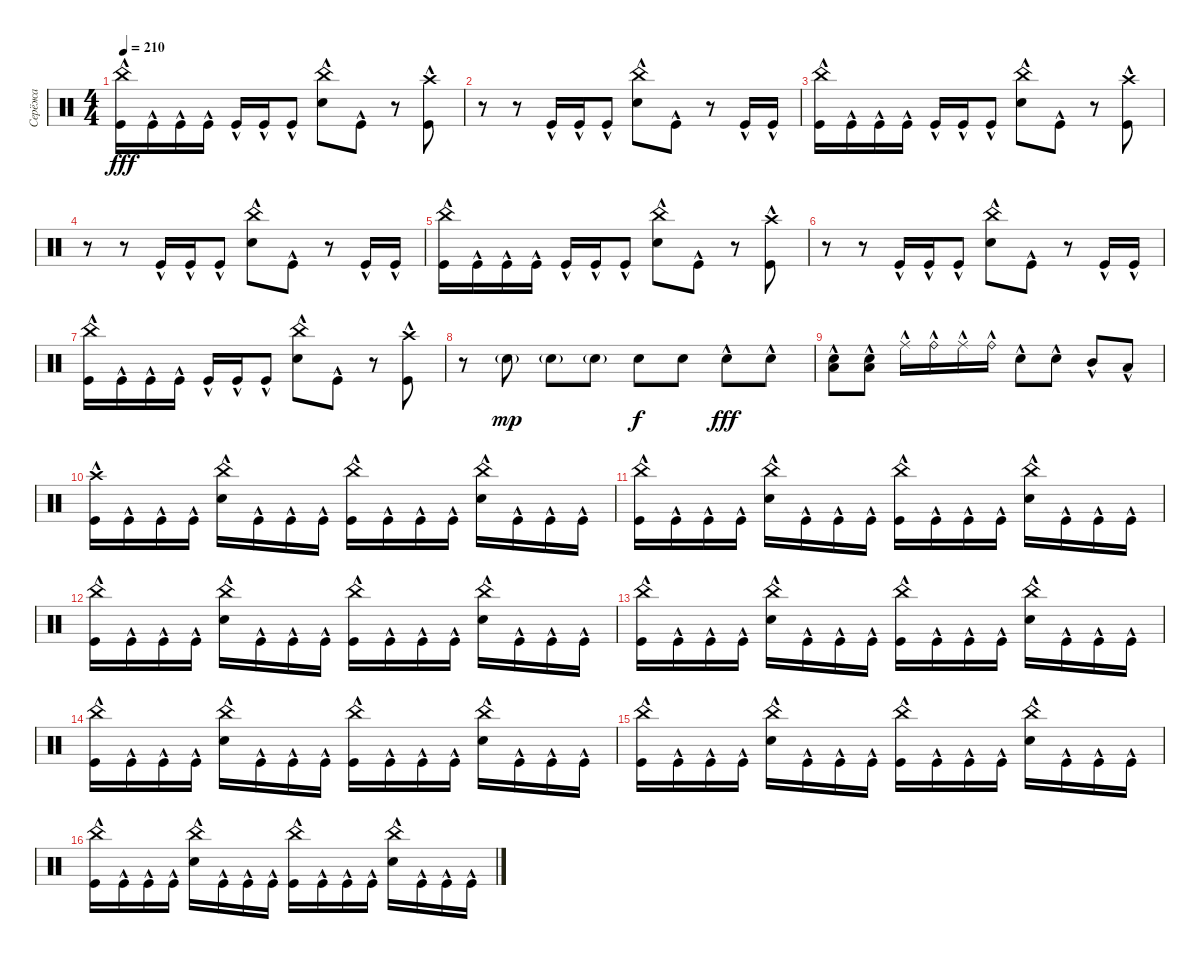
\track ("Серёжа" "Серёжа") {instrument percussion}
\staff {score}
\articulation defaults
\ts (4 4)
\tempo 210
\clef neutral
\ks c
("China (hit)" "Kick (hit)"{hac}).16{dy fff} "Kick (hit)"{hac}.16 "Kick (hit)"{hac}.16 "Kick (hit)"{hac}.16 "Kick (hit)"{hac}.16 "Kick (hit)"{hac}.16 "Kick (hit)"{hac}.8 ("China (hit)" "Snare (hit) 2"{hac}).8 "Kick (hit)"{hac}.8 r.8 ("Crash high (hit)"{hac} "Kick (hit)"{hac}).8 |
r.8 r.8 "Kick (hit)"{hac}.16 "Kick (hit)"{hac}.16 "Kick (hit)"{hac}.8 ("China (hit)" "Snare (hit) 2"{hac}).8 "Kick (hit)"{hac}.8 r.8 "Kick (hit)"{hac}.16 "Kick (hit)"{hac}.16 |
("China (hit)" "Kick (hit)"{hac}).16 "Kick (hit)"{hac}.16 "Kick (hit)"{hac}.16 "Kick (hit)"{hac}.16 "Kick (hit)"{hac}.16 "Kick (hit)"{hac}.16 "Kick (hit)"{hac}.8 ("China (hit)" "Snare (hit) 2"{hac}).8 "Kick (hit)"{hac}.8 r.8 ("Crash high (hit)"{hac} "Kick (hit)"{hac}).8 |
r.8 r.8 "Kick (hit)"{hac}.16 "Kick (hit)"{hac}.16 "Kick (hit)"{hac}.8 ("China (hit)" "Snare (hit) 2"{hac}).8 "Kick (hit)"{hac}.8 r.8 "Kick (hit)"{hac}.16 "Kick (hit)"{hac}.16 |
("China (hit)" "Kick (hit)"{hac}).16 "Kick (hit)"{hac}.16 "Kick (hit)"{hac}.16 "Kick (hit)"{hac}.16 "Kick (hit)"{hac}.16 "Kick (hit)"{hac}.16 "Kick (hit)"{hac}.8 ("China (hit)" "Snare (hit) 2"{hac}).8 "Kick (hit)"{hac}.8 r.8 ("Crash high (hit)"{hac} "Kick (hit)"{hac}).8 |
r.8 r.8 "Kick (hit)"{hac}.16 "Kick (hit)"{hac}.16 "Kick (hit)"{hac}.8 ("China (hit)" "Snare (hit) 2"{hac}).8 "Kick (hit)"{hac}.8 r.8 "Kick (hit)"{hac}.16 "Kick (hit)"{hac}.16 |
("China (hit)" "Kick (hit)"{hac}).16 "Kick (hit)"{hac}.16 "Kick (hit)"{hac}.16 "Kick (hit)"{hac}.16 "Kick (hit)"{hac}.16 "Kick (hit)"{hac}.16 "Kick (hit)"{hac}.8 ("China (hit)" "Snare (hit) 2"{hac}).8 "Kick (hit)"{hac}.8 r.8 ("Crash high (hit)"{hac} "Kick (hit)"{hac}).8 |
r.8 "Snare (hit) 2"{g}.8{dy mp} "Snare (hit) 2"{g}.8 "Snare (hit) 2"{g}.8 "Snare (hit) 2".8{dy f} "Snare (hit) 2".8 "Snare (hit) 2"{hac}.8{dy fff} "Snare (hit) 2"{hac}.8 |
("Low Floor Tom (hit)"{hac} "Snare (hit) 2"{hac}).8 ("Low Floor Tom (hit)"{hac} "Snare (hit) 2"{hac}).8 "Ride (middle)"{hac}.16 "Ride (bell)"{hac}.16 "Ride (middle)"{hac}.16 "Ride (bell)"{hac}.16 "Snare (hit) 2"{hac}.8 "Snare (hit) 2"{hac}.8 "Mid Tom (hit)"{hac}.8 "Low Tom (hit)"{hac}.8 |
("Crash high (hit)"{hac} "Kick (hit)"{hac}).16 "Kick (hit)"{hac}.16 "Kick (hit)"{hac}.16 "Kick (hit)"{hac}.16 ("China (hit)" "Snare (hit) 2"{hac}).16 "Kick (hit)"{hac}.16 "Kick (hit)"{hac}.16 "Kick (hit)"{hac}.16 ("China (hit)" "Kick (hit)"{hac}).16 "Kick (hit)"{hac}.16 "Kick (hit)"{hac}.16 "Kick (hit)"{hac}.16 ("China (hit)" "Snare (hit) 2"{hac}).16 "Kick (hit)"{hac}.16 "Kick (hit)"{hac}.16 "Kick (hit)"{hac}.16 |
("China (hit)" "Kick (hit)"{hac}).16 "Kick (hit)"{hac}.16 "Kick (hit)"{hac}.16 "Kick (hit)"{hac}.16 ("China (hit)" "Snare (hit) 2"{hac}).16 "Kick (hit)"{hac}.16 "Kick (hit)"{hac}.16 "Kick (hit)"{hac}.16 ("China (hit)" "Kick (hit)"{hac}).16 "Kick (hit)"{hac}.16 "Kick (hit)"{hac}.16 "Kick (hit)"{hac}.16 ("China (hit)" "Snare (hit) 2"{hac}).16 "Kick (hit)"{hac}.16 "Kick (hit)"{hac}.16 "Kick (hit)"{hac}.16 |
("China (hit)" "Kick (hit)"{hac}).16 "Kick (hit)"{hac}.16 "Kick (hit)"{hac}.16 "Kick (hit)"{hac}.16 ("China (hit)" "Snare (hit) 2"{hac}).16 "Kick (hit)"{hac}.16 "Kick (hit)"{hac}.16 "Kick (hit)"{hac}.16 ("China (hit)" "Kick (hit)"{hac}).16 "Kick (hit)"{hac}.16 "Kick (hit)"{hac}.16 "Kick (hit)"{hac}.16 ("China (hit)" "Snare (hit) 2"{hac}).16 "Kick (hit)"{hac}.16 "Kick (hit)"{hac}.16 "Kick (hit)"{hac}.16 |
("China (hit)" "Kick (hit)"{hac}).16 "Kick (hit)"{hac}.16 "Kick (hit)"{hac}.16 "Kick (hit)"{hac}.16 ("China (hit)" "Snare (hit) 2"{hac}).16 "Kick (hit)"{hac}.16 "Kick (hit)"{hac}.16 "Kick (hit)"{hac}.16 ("China (hit)" "Kick (hit)"{hac}).16 "Kick (hit)"{hac}.16 "Kick (hit)"{hac}.16 "Kick (hit)"{hac}.16 ("China (hit)" "Snare (hit) 2"{hac}).16 "Kick (hit)"{hac}.16 "Kick (hit)"{hac}.16 "Kick (hit)"{hac}.16 |
("China (hit)" "Kick (hit)"{hac}).16 "Kick (hit)"{hac}.16 "Kick (hit)"{hac}.16 "Kick (hit)"{hac}.16 ("China (hit)" "Snare (hit) 2"{hac}).16 "Kick (hit)"{hac}.16 "Kick (hit)"{hac}.16 "Kick (hit)"{hac}.16 ("China (hit)" "Kick (hit)"{hac}).16 "Kick (hit)"{hac}.16 "Kick (hit)"{hac}.16 "Kick (hit)"{hac}.16 ("China (hit)" "Snare (hit) 2"{hac}).16 "Kick (hit)"{hac}.16 "Kick (hit)"{hac}.16 "Kick (hit)"{hac}.16 |
("China (hit)" "Kick (hit)"{hac}).16 "Kick (hit)"{hac}.16 "Kick (hit)"{hac}.16 "Kick (hit)"{hac}.16 ("China (hit)" "Snare (hit) 2"{hac}).16 "Kick (hit)"{hac}.16 "Kick (hit)"{hac}.16 "Kick (hit)"{hac}.16 ("China (hit)" "Kick (hit)"{hac}).16 "Kick (hit)"{hac}.16 "Kick (hit)"{hac}.16 "Kick (hit)"{hac}.16 ("China (hit)" "Snare (hit) 2"{hac}).16 "Kick (hit)"{hac}.16 "Kick (hit)"{hac}.16 "Kick (hit)"{hac}.16 |
("China (hit)" "Kick (hit)"{hac}).16 "Kick (hit)"{hac}.16 "Kick (hit)"{hac}.16 "Kick (hit)"{hac}.16 ("China (hit)" "Snare (hit) 2"{hac}).16 "Kick (hit)"{hac}.16 "Kick (hit)"{hac}.16 "Kick (hit)"{hac}.16 ("China (hit)" "Kick (hit)"{hac}).16 "Kick (hit)"{hac}.16 "Kick (hit)"{hac}.16 "Kick (hit)"{hac}.16 ("China (hit)" "Snare (hit) 2"{hac}).16 "Kick (hit)"{hac}.16 "Kick (hit)"{hac}.16 "Kick (hit)"{hac}.16
